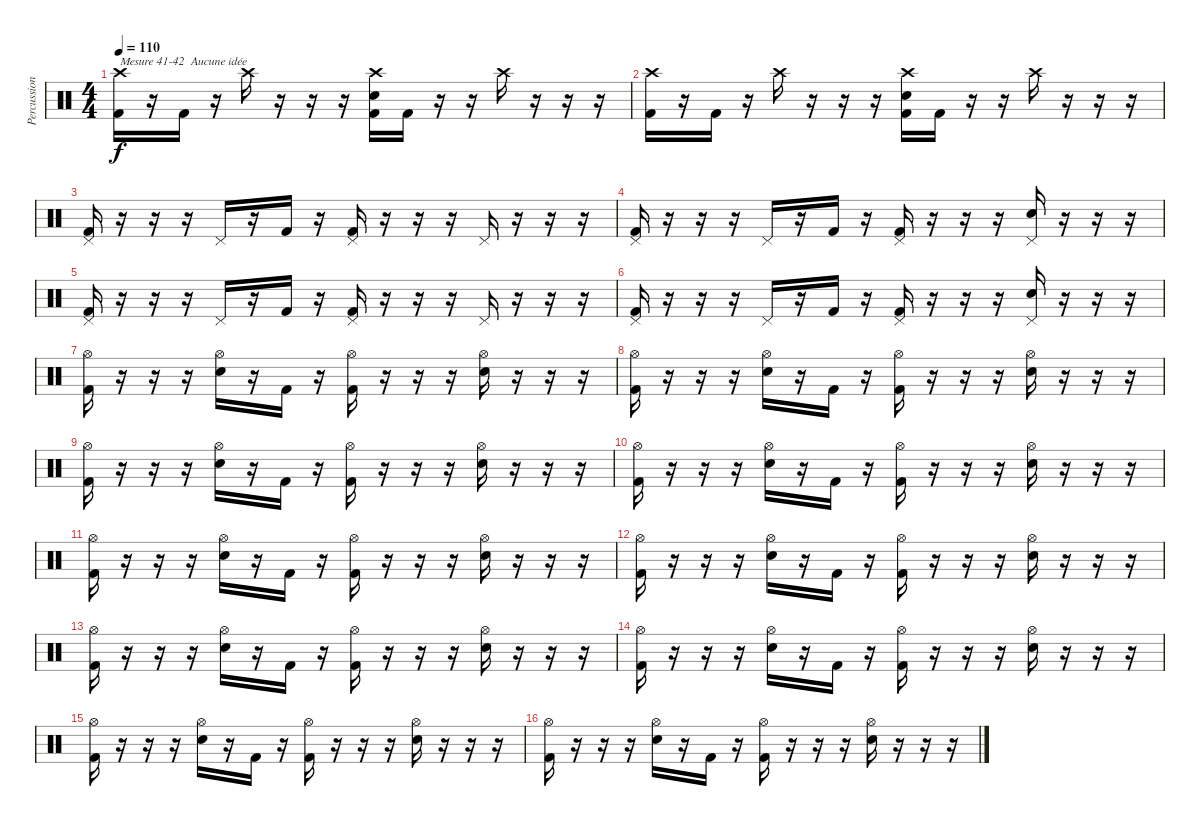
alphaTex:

\track ("Percussions" "Percussion") {instrument percussion}
\staff {score}
\articulation defaults
\ts (4 4)
\tempo 110
\clef neutral
\ks c
("Crash high (hit)" "Kick (hit) 2").16{txt "Mesure 41-42  Aucune idée" dy f} r.16 "Kick (hit) 2".16 r.16 "Crash high (hit)".16 r.16 r.16 r.16 ("Crash high (hit)" "Electric Snare (hit)" "Kick (hit) 2").16 "Kick (hit) 2".16 r.16 r.16 "Crash high (hit)".16 r.16 r.16 r.16 |
("Crash high (hit)" "Kick (hit) 2").16 r.16 "Kick (hit) 2".16 r.16 "Crash high (hit)".16 r.16 r.16 r.16 ("Crash high (hit)" "Electric Snare (hit)" "Kick (hit) 2").16 "Kick (hit) 2".16 r.16 r.16 "Crash high (hit)".16 r.16 r.16 r.16 |
("Pedal Hi-Hat (hit)" "Kick (hit) 2").16 r.16 r.16 r.16 "Pedal Hi-Hat (hit)".16 r.16 "Kick (hit) 2".16 r.16 ("Pedal Hi-Hat (hit)" "Kick (hit) 2").16 r.16 r.16 r.16 "Pedal Hi-Hat (hit)".16 r.16 r.16 r.16 |
("Pedal Hi-Hat (hit)" "Kick (hit) 2").16 r.16 r.16 r.16 "Pedal Hi-Hat (hit)".16 r.16 "Kick (hit) 2".16 r.16 ("Pedal Hi-Hat (hit)" "Kick (hit) 2").16 r.16 r.16 r.16 ("Pedal Hi-Hat (hit)" "Electric Snare (hit)").16 r.16 r.16 r.16 |
("Pedal Hi-Hat (hit)" "Kick (hit) 2").16 r.16 r.16 r.16 "Pedal Hi-Hat (hit)".16 r.16 "Kick (hit) 2".16 r.16 ("Pedal Hi-Hat (hit)" "Kick (hit) 2").16 r.16 r.16 r.16 "Pedal Hi-Hat (hit)".16 r.16 r.16 r.16 |
("Pedal Hi-Hat (hit)" "Kick (hit) 2").16 r.16 r.16 r.16 "Pedal Hi-Hat (hit)".16 r.16 "Kick (hit) 2".16 r.16 ("Pedal Hi-Hat (hit)" "Kick (hit) 2").16 r.16 r.16 r.16 ("Pedal Hi-Hat (hit)" "Electric Snare (hit)").16 r.16 r.16 r.16 |
("Hi-Hat (open)" "Kick (hit) 2").16 r.16 r.16 r.16 ("Hi-Hat (open)" "Electric Snare (hit)").16 r.16 "Kick (hit) 2".16 r.16 ("Hi-Hat (open)" "Kick (hit) 2").16 r.16 r.16 r.16 ("Hi-Hat (open)" "Electric Snare (hit)").16 r.16 r.16 r.16 |
("Hi-Hat (open)" "Kick (hit) 2").16 r.16 r.16 r.16 ("Hi-Hat (open)" "Electric Snare (hit)").16 r.16 "Kick (hit) 2".16 r.16 ("Hi-Hat (open)" "Kick (hit) 2").16 r.16 r.16 r.16 ("Hi-Hat (open)" "Electric Snare (hit)").16 r.16 r.16 r.16 |
("Hi-Hat (open)" "Kick (hit) 2").16 r.16 r.16 r.16 ("Hi-Hat (open)" "Electric Snare (hit)").16 r.16 "Kick (hit) 2".16 r.16 ("Hi-Hat (open)" "Kick (hit) 2").16 r.16 r.16 r.16 ("Hi-Hat (open)" "Electric Snare (hit)").16 r.16 r.16 r.16 |
("Hi-Hat (open)" "Kick (hit) 2").16 r.16 r.16 r.16 ("Hi-Hat (open)" "Electric Snare (hit)").16 r.16 "Kick (hit) 2".16 r.16 ("Hi-Hat (open)" "Kick (hit) 2").16 r.16 r.16 r.16 ("Hi-Hat (open)" "Electric Snare (hit)").16 r.16 r.16 r.16 |
("Hi-Hat (open)" "Kick (hit) 2").16 r.16 r.16 r.16 ("Hi-Hat (open)" "Electric Snare (hit)").16 r.16 "Kick (hit) 2".16 r.16 ("Hi-Hat (open)" "Kick (hit) 2").16 r.16 r.16 r.16 ("Hi-Hat (open)" "Electric Snare (hit)").16 r.16 r.16 r.16 |
("Hi-Hat (open)" "Kick (hit) 2").16 r.16 r.16 r.16 ("Hi-Hat (open)" "Electric Snare (hit)").16 r.16 "Kick (hit) 2".16 r.16 ("Hi-Hat (open)" "Kick (hit) 2").16 r.16 r.16 r.16 ("Hi-Hat (open)" "Electric Snare (hit)").16 r.16 r.16 r.16 |
("Hi-Hat (open)" "Kick (hit) 2").16 r.16 r.16 r.16 ("Hi-Hat (open)" "Electric Snare (hit)").16 r.16 "Kick (hit) 2".16 r.16 ("Hi-Hat (open)" "Kick (hit) 2").16 r.16 r.16 r.16 ("Hi-Hat (open)" "Electric Snare (hit)").16 r.16 r.16 r.16 |
("Hi-Hat (open)" "Kick (hit) 2").16 r.16 r.16 r.16 ("Hi-Hat (open)" "Electric Snare (hit)").16 r.16 "Kick (hit) 2".16 r.16 ("Hi-Hat (open)" "Kick (hit) 2").16 r.16 r.16 r.16 ("Hi-Hat (open)" "Electric Snare (hit)").16 r.16 r.16 r.16 |
("Hi-Hat (open)" "Kick (hit) 2").16 r.16 r.16 r.16 ("Hi-Hat (open)" "Electric Snare (hit)").16 r.16 "Kick (hit) 2".16 r.16 ("Hi-Hat (open)" "Kick (hit) 2").16 r.16 r.16 r.16 ("Hi-Hat (open)" "Electric Snare (hit)").16 r.16 r.16 r.16 |
("Hi-Hat (open)" "Kick (hit) 2").16 r.16 r.16 r.16 ("Hi-Hat (open)" "Electric Snare (hit)").16 r.16 "Kick (hit) 2".16 r.16 ("Hi-Hat (open)" "Kick (hit) 2").16 r.16 r.16 r.16 ("Hi-Hat (open)" "Electric Snare (hit)").16 r.16 r.16 r.16
